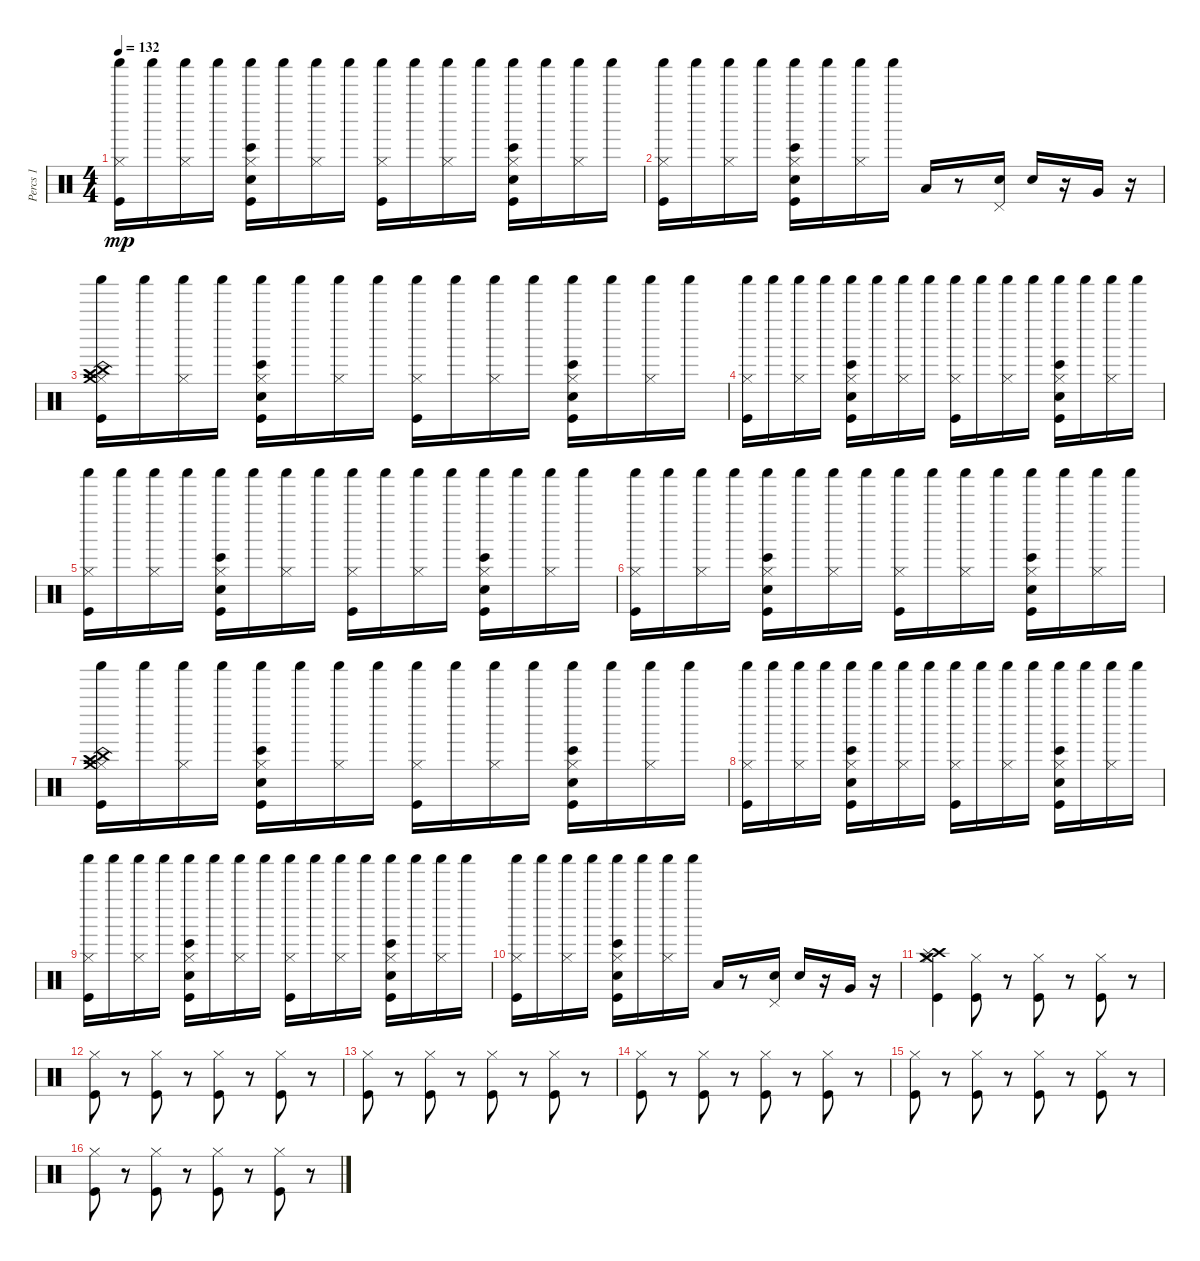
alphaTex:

\track ("Percs 1" "Percs 1") {instrument percussion}
\staff {score}
\articulation defaults
\ts (4 4)
\tempo 132
\clef neutral
\ks c
("Hi-Hat (closed)" "Kick (hit)" "Shaker (hit)").16{dy mp} "Shaker (hit)".16 ("Hi-Hat (closed)" "Shaker (hit)").16 "Shaker (hit)".16 ("Hi-Hat (closed)" "Kick (hit)" "Electric Snare (hit)" "Bongo High (hit)" "Shaker (hit)").16 "Shaker (hit)".16 ("Shaker (hit)" "Hi-Hat (closed)").16 "Shaker (hit)".16 ("Hi-Hat (closed)" "Kick (hit)" "Shaker (hit)").16 "Shaker (hit)".16 ("Hi-Hat (closed)" "Shaker (hit)").16 "Shaker (hit)".16 ("Hi-Hat (closed)" "Electric Snare (hit)" "Shaker (hit)" "Bongo High (hit)" "Kick (hit)").16 "Shaker (hit)".16 ("Hi-Hat (closed)" "Shaker (hit)").16 "Shaker (hit)".16 |
("Shaker (hit)" "Hi-Hat (closed)" "Kick (hit)").16 "Shaker (hit)".16 ("Shaker (hit)" "Hi-Hat (closed)").16 "Shaker (hit)".16 ("Shaker (hit)" "Bongo High (hit)" "Kick (hit)" "Electric Snare (hit)" "Hi-Hat (closed)").16 "Shaker (hit)".16 ("Hi-Hat (closed)" "Shaker (hit)").16 "Shaker (hit)".16 "Low Floor Tom (hit)".16 r.8 ("Snare (hit) 2" "Pedal Hi-Hat (hit)").16 "Snare (hit) 2".16 r.16 "Very Low Tom (hit)".16 r.16 |
("Shaker (hit)" "Kick (hit)" "Hi-Hat (closed)" "Crash high (hit)" "China (hit)" "Crash medium (hit)").16 "Shaker (hit)".16 ("Hi-Hat (closed)" "Shaker (hit)").16 "Shaker (hit)".16 ("Hi-Hat (closed)" "Kick (hit)" "Electric Snare (hit)" "Bongo High (hit)" "Shaker (hit)").16 "Shaker (hit)".16 ("Shaker (hit)" "Hi-Hat (closed)").16 "Shaker (hit)".16 ("Hi-Hat (closed)" "Kick (hit)" "Shaker (hit)").16 "Shaker (hit)".16 ("Hi-Hat (closed)" "Shaker (hit)").16 "Shaker (hit)".16 ("Hi-Hat (closed)" "Electric Snare (hit)" "Shaker (hit)" "Bongo High (hit)" "Kick (hit)").16 "Shaker (hit)".16 ("Hi-Hat (closed)" "Shaker (hit)").16 "Shaker (hit)".16 |
("Shaker (hit)" "Kick (hit)" "Hi-Hat (closed)").16 "Shaker (hit)".16 ("Shaker (hit)" "Hi-Hat (closed)").16 "Shaker (hit)".16 ("Shaker (hit)" "Hi-Hat (closed)" "Electric Snare (hit)" "Kick (hit)" "Bongo High (hit)").16 "Shaker (hit)".16 ("Hi-Hat (closed)" "Shaker (hit)").16 "Shaker (hit)".16 ("Hi-Hat (closed)" "Shaker (hit)" "Kick (hit)").16 "Shaker (hit)".16 ("Hi-Hat (closed)" "Shaker (hit)").16 "Shaker (hit)".16 ("Shaker (hit)" "Bongo High (hit)" "Kick (hit)" "Electric Snare (hit)" "Hi-Hat (closed)").16 "Shaker (hit)".16 ("Shaker (hit)" "Hi-Hat (closed)").16 "Shaker (hit)".16 |
("Hi-Hat (closed)" "Kick (hit)" "Shaker (hit)").16 "Shaker (hit)".16 ("Hi-Hat (closed)" "Shaker (hit)").16 "Shaker (hit)".16 ("Hi-Hat (closed)" "Kick (hit)" "Electric Snare (hit)" "Bongo High (hit)" "Shaker (hit)").16 "Shaker (hit)".16 ("Shaker (hit)" "Hi-Hat (closed)").16 "Shaker (hit)".16 ("Hi-Hat (closed)" "Kick (hit)" "Shaker (hit)").16 "Shaker (hit)".16 ("Hi-Hat (closed)" "Shaker (hit)").16 "Shaker (hit)".16 ("Hi-Hat (closed)" "Electric Snare (hit)" "Shaker (hit)" "Bongo High (hit)" "Kick (hit)").16 "Shaker (hit)".16 ("Hi-Hat (closed)" "Shaker (hit)").16 "Shaker (hit)".16 |
("Shaker (hit)" "Kick (hit)" "Hi-Hat (closed)").16 "Shaker (hit)".16 ("Shaker (hit)" "Hi-Hat (closed)").16 "Shaker (hit)".16 ("Shaker (hit)" "Hi-Hat (closed)" "Electric Snare (hit)" "Kick (hit)" "Bongo High (hit)").16 "Shaker (hit)".16 ("Hi-Hat (closed)" "Shaker (hit)").16 "Shaker (hit)".16 ("Hi-Hat (closed)" "Shaker (hit)" "Kick (hit)").16 "Shaker (hit)".16 ("Hi-Hat (closed)" "Shaker (hit)").16 "Shaker (hit)".16 ("Shaker (hit)" "Bongo High (hit)" "Kick (hit)" "Electric Snare (hit)" "Hi-Hat (closed)").16 "Shaker (hit)".16 ("Shaker (hit)" "Hi-Hat (closed)").16 "Shaker (hit)".16 |
("Shaker (hit)" "Kick (hit)" "Hi-Hat (closed)" "Crash high (hit)" "China (hit)" "Crash medium (hit)").16 "Shaker (hit)".16 ("Hi-Hat (closed)" "Shaker (hit)").16 "Shaker (hit)".16 ("Hi-Hat (closed)" "Kick (hit)" "Electric Snare (hit)" "Bongo High (hit)" "Shaker (hit)").16 "Shaker (hit)".16 ("Shaker (hit)" "Hi-Hat (closed)").16 "Shaker (hit)".16 ("Hi-Hat (closed)" "Kick (hit)" "Shaker (hit)").16 "Shaker (hit)".16 ("Hi-Hat (closed)" "Shaker (hit)").16 "Shaker (hit)".16 ("Hi-Hat (closed)" "Electric Snare (hit)" "Shaker (hit)" "Bongo High (hit)" "Kick (hit)").16 "Shaker (hit)".16 ("Hi-Hat (closed)" "Shaker (hit)").16 "Shaker (hit)".16 |
("Shaker (hit)" "Kick (hit)" "Hi-Hat (closed)").16 "Shaker (hit)".16 ("Shaker (hit)" "Hi-Hat (closed)").16 "Shaker (hit)".16 ("Shaker (hit)" "Hi-Hat (closed)" "Electric Snare (hit)" "Kick (hit)" "Bongo High (hit)").16 "Shaker (hit)".16 ("Hi-Hat (closed)" "Shaker (hit)").16 "Shaker (hit)".16 ("Hi-Hat (closed)" "Shaker (hit)" "Kick (hit)").16 "Shaker (hit)".16 ("Hi-Hat (closed)" "Shaker (hit)").16 "Shaker (hit)".16 ("Shaker (hit)" "Bongo High (hit)" "Kick (hit)" "Electric Snare (hit)" "Hi-Hat (closed)").16 "Shaker (hit)".16 ("Shaker (hit)" "Hi-Hat (closed)").16 "Shaker (hit)".16 |
("Hi-Hat (closed)" "Kick (hit)" "Shaker (hit)").16 "Shaker (hit)".16 ("Hi-Hat (closed)" "Shaker (hit)").16 "Shaker (hit)".16 ("Hi-Hat (closed)" "Kick (hit)" "Electric Snare (hit)" "Bongo High (hit)" "Shaker (hit)").16 "Shaker (hit)".16 ("Shaker (hit)" "Hi-Hat (closed)").16 "Shaker (hit)".16 ("Hi-Hat (closed)" "Kick (hit)" "Shaker (hit)").16 "Shaker (hit)".16 ("Hi-Hat (closed)" "Shaker (hit)").16 "Shaker (hit)".16 ("Hi-Hat (closed)" "Electric Snare (hit)" "Shaker (hit)" "Bongo High (hit)" "Kick (hit)").16 "Shaker (hit)".16 ("Hi-Hat (closed)" "Shaker (hit)").16 "Shaker (hit)".16 |
("Shaker (hit)" "Hi-Hat (closed)" "Kick (hit)").16 "Shaker (hit)".16 ("Shaker (hit)" "Hi-Hat (closed)").16 "Shaker (hit)".16 ("Shaker (hit)" "Bongo High (hit)" "Kick (hit)" "Electric Snare (hit)" "Hi-Hat (closed)").16 "Shaker (hit)".16 ("Hi-Hat (closed)" "Shaker (hit)").16 "Shaker (hit)".16 "Low Floor Tom (hit)".16 r.8 ("Snare (hit) 2" "Pedal Hi-Hat (hit)").16 "Snare (hit) 2".16 r.16 "Very Low Tom (hit)".16 r.16 |
("Kick (hit)" "Hi-Hat (closed)" "Crash high (hit)" "Crash medium (hit)" "Splash (hit)").4 ("Kick (hit)" "Hi-Hat (closed)").8 r.8 ("Kick (hit)" "Hi-Hat (closed)").8 r.8 ("Kick (hit)" "Hi-Hat (closed)").8 r.8 |
("Kick (hit)" "Hi-Hat (closed)").8 r.8 ("Kick (hit)" "Hi-Hat (closed)").8 r.8 ("Kick (hit)" "Hi-Hat (closed)").8 r.8 ("Kick (hit)" "Hi-Hat (closed)").8 r.8 |
("Kick (hit)" "Hi-Hat (closed)").8 r.8 ("Kick (hit)" "Hi-Hat (closed)").8 r.8 ("Kick (hit)" "Hi-Hat (closed)").8 r.8 ("Kick (hit)" "Hi-Hat (closed)").8 r.8 |
("Kick (hit)" "Hi-Hat (closed)").8 r.8 ("Kick (hit)" "Hi-Hat (closed)").8 r.8 ("Kick (hit)" "Hi-Hat (closed)").8 r.8 ("Kick (hit)" "Hi-Hat (closed)").8 r.8 |
("Kick (hit)" "Hi-Hat (closed)").8 r.8 ("Kick (hit)" "Hi-Hat (closed)").8 r.8 ("Kick (hit)" "Hi-Hat (closed)").8 r.8 ("Kick (hit)" "Hi-Hat (closed)").8 r.8 |
("Kick (hit)" "Hi-Hat (closed)").8 r.8 ("Kick (hit)" "Hi-Hat (closed)").8 r.8 ("Kick (hit)" "Hi-Hat (closed)").8 r.8 ("Kick (hit)" "Hi-Hat (closed)").8 r.8
